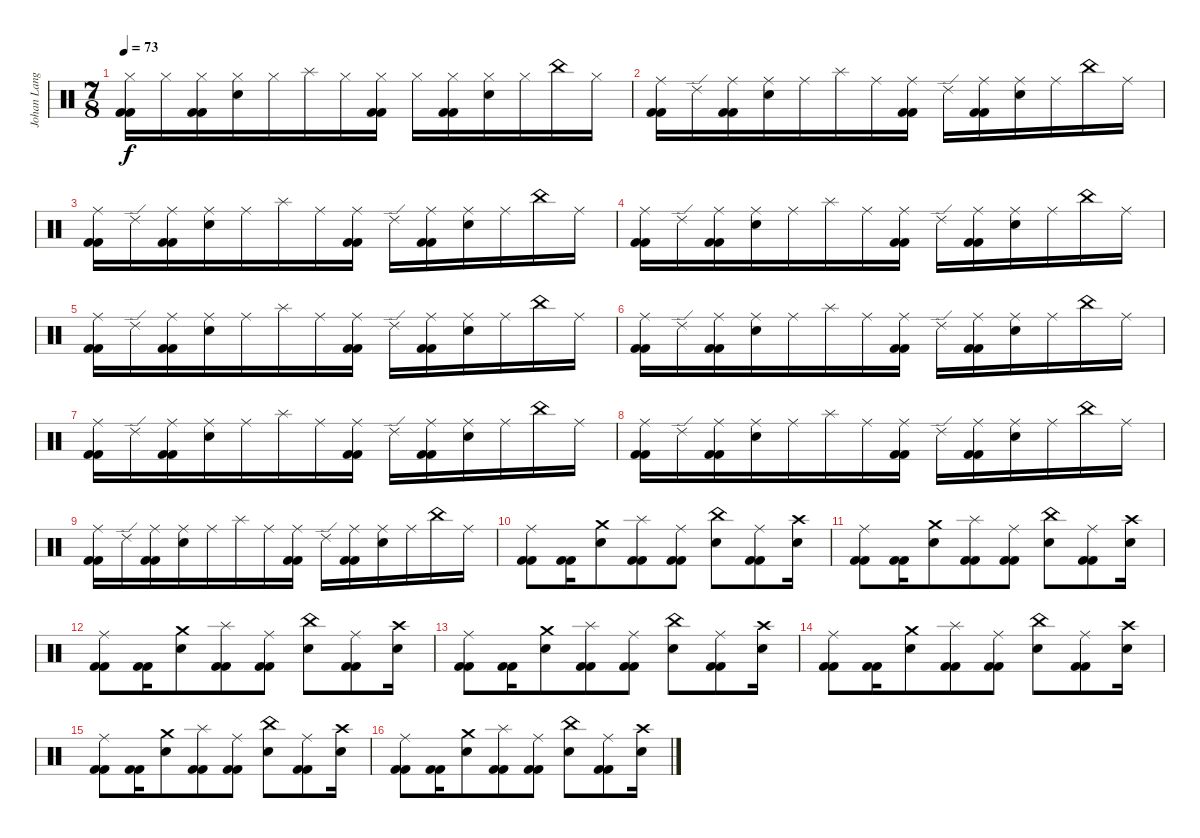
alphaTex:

\track ("Johan Langell" "Johan Lang") {instrument percussion}
\staff {score}
\articulation defaults
\ts (7 8)
\tempo 73
\clef neutral
\ks c
("Hi-Hat (closed)" "Kick (hit) 2" "Kick (hit) 2").16{dy f} "Hi-Hat (closed)".16 ("Hi-Hat (closed)" "Kick (hit) 2" "Kick (hit) 2").16 ("Hi-Hat (closed)" "Snare (hit) 2").16 "Hi-Hat (closed)".16 "Splash (hit)".16 "Hi-Hat (closed)".16 ("Hi-Hat (closed)" "Kick (hit) 2" "Kick (hit) 2").16 "Hi-Hat (closed)".16 ("Hi-Hat (closed)" "Kick (hit) 2" "Kick (hit) 2").16 ("Hi-Hat (closed)" "Snare (hit) 2").16 "Hi-Hat (closed)".16 "China (hit)".16 "Hi-Hat (closed)".16 |
("Ride (middle)" "Kick (hit) 2" "Kick (hit) 2").16 "Ride (edge) 2".16 ("Ride (middle)" "Kick (hit) 2" "Kick (hit) 2").16 ("Ride (middle)" "Snare (hit) 2").16 "Ride (middle)".16 "Splash (hit)".16 "Ride (middle)".16 ("Ride (middle)" "Kick (hit) 2" "Kick (hit) 2").16 "Ride (edge) 2".16 ("Ride (middle)" "Kick (hit) 2" "Kick (hit) 2").16 ("Ride (middle)" "Snare (hit) 2").16 "Ride (middle)".16 "China (hit)".16 "Ride (middle)".16 |
("Ride (middle)" "Kick (hit) 2" "Kick (hit) 2").16 "Ride (edge) 2".16 ("Ride (middle)" "Kick (hit) 2" "Kick (hit) 2").16 ("Ride (middle)" "Snare (hit) 2").16 "Ride (middle)".16 "Splash (hit)".16 "Ride (middle)".16 ("Ride (middle)" "Kick (hit) 2" "Kick (hit) 2").16 "Ride (edge) 2".16 ("Ride (middle)" "Kick (hit) 2" "Kick (hit) 2").16 ("Ride (middle)" "Snare (hit) 2").16 "Ride (middle)".16 "China (hit)".16 "Ride (middle)".16 |
("Ride (middle)" "Kick (hit) 2" "Kick (hit) 2").16 "Ride (edge) 2".16 ("Ride (middle)" "Kick (hit) 2" "Kick (hit) 2").16 ("Ride (middle)" "Snare (hit) 2").16 "Ride (middle)".16 "Splash (hit)".16 "Ride (middle)".16 ("Ride (middle)" "Kick (hit) 2" "Kick (hit) 2").16 "Ride (edge) 2".16 ("Ride (middle)" "Kick (hit) 2" "Kick (hit) 2").16 ("Ride (middle)" "Snare (hit) 2").16 "Ride (middle)".16 "China (hit)".16 "Ride (middle)".16 |
("Ride (middle)" "Kick (hit) 2" "Kick (hit) 2").16 "Ride (edge) 2".16 ("Ride (middle)" "Kick (hit) 2" "Kick (hit) 2").16 ("Ride (middle)" "Snare (hit) 2").16 "Ride (middle)".16 "Splash (hit)".16 "Ride (middle)".16 ("Ride (middle)" "Kick (hit) 2" "Kick (hit) 2").16 "Ride (edge) 2".16 ("Ride (middle)" "Kick (hit) 2" "Kick (hit) 2").16 ("Ride (middle)" "Snare (hit) 2").16 "Ride (middle)".16 "China (hit)".16 "Ride (middle)".16 |
("Ride (middle)" "Kick (hit) 2" "Kick (hit) 2").16 "Ride (edge) 2".16 ("Ride (middle)" "Kick (hit) 2" "Kick (hit) 2").16 ("Ride (middle)" "Snare (hit) 2").16 "Ride (middle)".16 "Splash (hit)".16 "Ride (middle)".16 ("Ride (middle)" "Kick (hit) 2" "Kick (hit) 2").16 "Ride (edge) 2".16 ("Ride (middle)" "Kick (hit) 2" "Kick (hit) 2").16 ("Ride (middle)" "Snare (hit) 2").16 "Ride (middle)".16 "China (hit)".16 "Ride (middle)".16 |
("Ride (middle)" "Kick (hit) 2" "Kick (hit) 2").16 "Ride (edge) 2".16 ("Ride (middle)" "Kick (hit) 2" "Kick (hit) 2").16 ("Ride (middle)" "Snare (hit) 2").16 "Ride (middle)".16 "Splash (hit)".16 "Ride (middle)".16 ("Ride (middle)" "Kick (hit) 2" "Kick (hit) 2").16 "Ride (edge) 2".16 ("Ride (middle)" "Kick (hit) 2" "Kick (hit) 2").16 ("Ride (middle)" "Snare (hit) 2").16 "Ride (middle)".16 "China (hit)".16 "Ride (middle)".16 |
("Ride (middle)" "Kick (hit) 2" "Kick (hit) 2").16 "Ride (edge) 2".16 ("Ride (middle)" "Kick (hit) 2" "Kick (hit) 2").16 ("Ride (middle)" "Snare (hit) 2").16 "Ride (middle)".16 "Splash (hit)".16 "Ride (middle)".16 ("Ride (middle)" "Kick (hit) 2" "Kick (hit) 2").16 "Ride (edge) 2".16 ("Ride (middle)" "Kick (hit) 2" "Kick (hit) 2").16 ("Ride (middle)" "Snare (hit) 2").16 "Ride (middle)".16 "China (hit)".16 "Ride (middle)".16 |
("Ride (middle)" "Kick (hit) 2" "Kick (hit) 2").16 "Ride (edge) 2".16 ("Ride (middle)" "Kick (hit) 2" "Kick (hit) 2").16 ("Ride (middle)" "Snare (hit) 2").16 "Ride (middle)".16 "Splash (hit)".16 "Ride (middle)".16 ("Ride (middle)" "Kick (hit) 2" "Kick (hit) 2").16 "Ride (edge) 2".16 ("Ride (middle)" "Kick (hit) 2" "Kick (hit) 2").16 ("Ride (middle)" "Snare (hit) 2").16 "Ride (middle)".16 "China (hit)".16 "Ride (middle)".16 |
("Ride (middle)" "Kick (hit) 2" "Kick (hit) 2").8 ("Kick (hit) 2" "Kick (hit) 2").16 ("Crash medium (hit)" "Snare (hit) 2").8 ("Splash (hit)" "Kick (hit) 2" "Kick (hit) 2").8 ("Ride (middle)" "Kick (hit) 2" "Kick (hit) 2").8 ("China (hit)" "Snare (hit) 2").8 ("Ride (middle)" "Kick (hit) 2" "Kick (hit) 2").8 ("Crash high (hit)" "Snare (hit) 2").16 |
("Ride (middle)" "Kick (hit) 2" "Kick (hit) 2").8 ("Kick (hit) 2" "Kick (hit) 2").16 ("Crash medium (hit)" "Snare (hit) 2").8 ("Splash (hit)" "Kick (hit) 2" "Kick (hit) 2").8 ("Ride (middle)" "Kick (hit) 2" "Kick (hit) 2").8 ("China (hit)" "Snare (hit) 2").8 ("Ride (middle)" "Kick (hit) 2" "Kick (hit) 2").8 ("Crash high (hit)" "Snare (hit) 2").16 |
("Ride (middle)" "Kick (hit) 2" "Kick (hit) 2").8 ("Kick (hit) 2" "Kick (hit) 2").16 ("Crash medium (hit)" "Snare (hit) 2").8 ("Splash (hit)" "Kick (hit) 2" "Kick (hit) 2").8 ("Ride (middle)" "Kick (hit) 2" "Kick (hit) 2").8 ("China (hit)" "Snare (hit) 2").8 ("Ride (middle)" "Kick (hit) 2" "Kick (hit) 2").8 ("Crash high (hit)" "Snare (hit) 2").16 |
("Ride (middle)" "Kick (hit) 2" "Kick (hit) 2").8 ("Kick (hit) 2" "Kick (hit) 2").16 ("Crash medium (hit)" "Snare (hit) 2").8 ("Splash (hit)" "Kick (hit) 2" "Kick (hit) 2").8 ("Ride (middle)" "Kick (hit) 2" "Kick (hit) 2").8 ("China (hit)" "Snare (hit) 2").8 ("Ride (middle)" "Kick (hit) 2" "Kick (hit) 2").8 ("Crash high (hit)" "Snare (hit) 2").16 |
("Ride (middle)" "Kick (hit) 2" "Kick (hit) 2").8 ("Kick (hit) 2" "Kick (hit) 2").16 ("Crash medium (hit)" "Snare (hit) 2").8 ("Splash (hit)" "Kick (hit) 2" "Kick (hit) 2").8 ("Ride (middle)" "Kick (hit) 2" "Kick (hit) 2").8 ("China (hit)" "Snare (hit) 2").8 ("Ride (middle)" "Kick (hit) 2" "Kick (hit) 2").8 ("Crash high (hit)" "Snare (hit) 2").16 |
("Ride (middle)" "Kick (hit) 2" "Kick (hit) 2").8 ("Kick (hit) 2" "Kick (hit) 2").16 ("Crash medium (hit)" "Snare (hit) 2").8 ("Splash (hit)" "Kick (hit) 2" "Kick (hit) 2").8 ("Ride (middle)" "Kick (hit) 2" "Kick (hit) 2").8 ("China (hit)" "Snare (hit) 2").8 ("Ride (middle)" "Kick (hit) 2" "Kick (hit) 2").8 ("Crash high (hit)" "Snare (hit) 2").16 |
("Ride (middle)" "Kick (hit) 2" "Kick (hit) 2").8 ("Kick (hit) 2" "Kick (hit) 2").16 ("Crash medium (hit)" "Snare (hit) 2").8 ("Splash (hit)" "Kick (hit) 2" "Kick (hit) 2").8 ("Ride (middle)" "Kick (hit) 2" "Kick (hit) 2").8 ("China (hit)" "Snare (hit) 2").8 ("Ride (middle)" "Kick (hit) 2" "Kick (hit) 2").8 ("Crash high (hit)" "Snare (hit) 2").16
